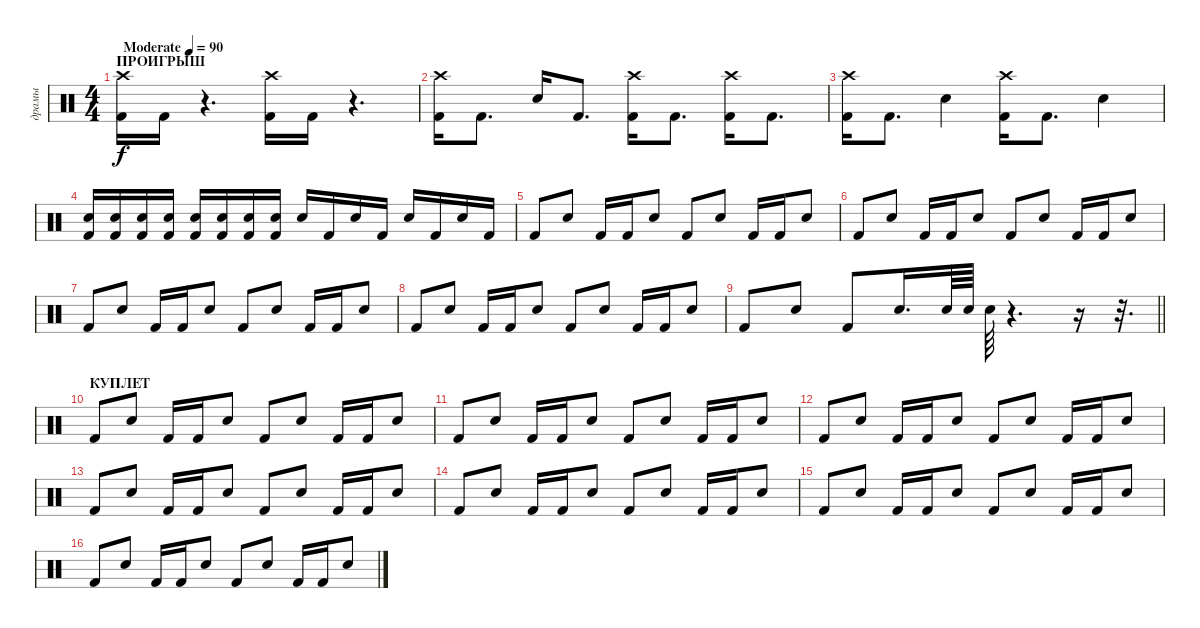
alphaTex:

\track ("драмы" "драмы") {instrument percussion}
\staff {score}
\articulation defaults
\ts (4 4)
\section ("" "ПРОИГРЫШ")
\tempo (90 "Moderate")
\clef neutral
\ks c
("Kick (hit) 2" "Crash high (hit)").16{dy f} "Kick (hit) 2".16 r.4{d} ("Kick (hit) 2" "Crash high (hit)").16 "Kick (hit) 2".16 r.4{d} |
("Kick (hit) 2" "Crash high (hit)").16 "Kick (hit) 2".8{d} "Electric Snare (hit)".16 "Kick (hit) 2".8{d} ("Kick (hit) 2" "Crash high (hit)").16 "Kick (hit) 2".8{d} ("Kick (hit) 2" "Crash high (hit)").16 "Kick (hit) 2".8{d} |
("Kick (hit) 2" "Crash high (hit)").16 "Kick (hit) 2".8{d} "Electric Snare (hit)".4 ("Kick (hit) 2" "Crash high (hit)").16 "Kick (hit) 2".8{d} "Electric Snare (hit)".4 |
("Kick (hit) 2" "Electric Snare (hit)").16 ("Kick (hit) 2" "Electric Snare (hit)").16 ("Kick (hit) 2" "Electric Snare (hit)").16 ("Kick (hit) 2" "Electric Snare (hit)").16 ("Kick (hit) 2" "Electric Snare (hit)").16 ("Kick (hit) 2" "Electric Snare (hit)").16 ("Kick (hit) 2" "Electric Snare (hit)").16 ("Kick (hit) 2" "Electric Snare (hit)").16 "Electric Snare (hit)".16 "Kick (hit) 2".16 "Electric Snare (hit)".16 "Kick (hit) 2".16 "Electric Snare (hit)".16 "Kick (hit) 2".16 "Electric Snare (hit)".16 "Kick (hit) 2".16 |
"Kick (hit) 2".8 "Electric Snare (hit)".8 "Kick (hit) 2".16 "Kick (hit) 2".16 "Electric Snare (hit)".8 "Kick (hit) 2".8 "Electric Snare (hit)".8 "Kick (hit) 2".16 "Kick (hit) 2".16 "Electric Snare (hit)".8 |
"Kick (hit) 2".8 "Electric Snare (hit)".8 "Kick (hit) 2".16 "Kick (hit) 2".16 "Electric Snare (hit)".8 "Kick (hit) 2".8 "Electric Snare (hit)".8 "Kick (hit) 2".16 "Kick (hit) 2".16 "Electric Snare (hit)".8 |
"Kick (hit) 2".8 "Electric Snare (hit)".8 "Kick (hit) 2".16 "Kick (hit) 2".16 "Electric Snare (hit)".8 "Kick (hit) 2".8 "Electric Snare (hit)".8 "Kick (hit) 2".16 "Kick (hit) 2".16 "Electric Snare (hit)".8 |
"Kick (hit) 2".8 "Electric Snare (hit)".8 "Kick (hit) 2".16 "Kick (hit) 2".16 "Electric Snare (hit)".8 "Kick (hit) 2".8 "Electric Snare (hit)".8 "Kick (hit) 2".16 "Kick (hit) 2".16 "Electric Snare (hit)".8 |
\barLineRight lightlight "Kick (hit) 2".8 "Electric Snare (hit)".8 "Kick (hit) 2".8 "Electric Snare (hit)".16{d} "Electric Snare (hit)".64 "Electric Snare (hit)".64 "Electric Snare (hit)".64
r.4{d} r.16 r.32{d} |
\section ("" "КУПЛЕТ")
"Kick (hit) 2".8 "Electric Snare (hit)".8 "Kick (hit) 2".16 "Kick (hit) 2".16 "Electric Snare (hit)".8 "Kick (hit) 2".8 "Electric Snare (hit)".8 "Kick (hit) 2".16 "Kick (hit) 2".16 "Electric Snare (hit)".8 |
"Kick (hit) 2".8 "Electric Snare (hit)".8 "Kick (hit) 2".16 "Kick (hit) 2".16 "Electric Snare (hit)".8 "Kick (hit) 2".8 "Electric Snare (hit)".8 "Kick (hit) 2".16 "Kick (hit) 2".16 "Electric Snare (hit)".8 |
"Kick (hit) 2".8 "Electric Snare (hit)".8 "Kick (hit) 2".16 "Kick (hit) 2".16 "Electric Snare (hit)".8 "Kick (hit) 2".8 "Electric Snare (hit)".8 "Kick (hit) 2".16 "Kick (hit) 2".16 "Electric Snare (hit)".8 |
"Kick (hit) 2".8 "Electric Snare (hit)".8 "Kick (hit) 2".16 "Kick (hit) 2".16 "Electric Snare (hit)".8 "Kick (hit) 2".8 "Electric Snare (hit)".8 "Kick (hit) 2".16 "Kick (hit) 2".16 "Electric Snare (hit)".8 |
"Kick (hit) 2".8 "Electric Snare (hit)".8 "Kick (hit) 2".16 "Kick (hit) 2".16 "Electric Snare (hit)".8 "Kick (hit) 2".8 "Electric Snare (hit)".8 "Kick (hit) 2".16 "Kick (hit) 2".16 "Electric Snare (hit)".8 |
"Kick (hit) 2".8 "Electric Snare (hit)".8 "Kick (hit) 2".16 "Kick (hit) 2".16 "Electric Snare (hit)".8 "Kick (hit) 2".8 "Electric Snare (hit)".8 "Kick (hit) 2".16 "Kick (hit) 2".16 "Electric Snare (hit)".8 |
"Kick (hit) 2".8 "Electric Snare (hit)".8 "Kick (hit) 2".16 "Kick (hit) 2".16 "Electric Snare (hit)".8 "Kick (hit) 2".8 "Electric Snare (hit)".8 "Kick (hit) 2".16 "Kick (hit) 2".16 "Electric Snare (hit)".8
